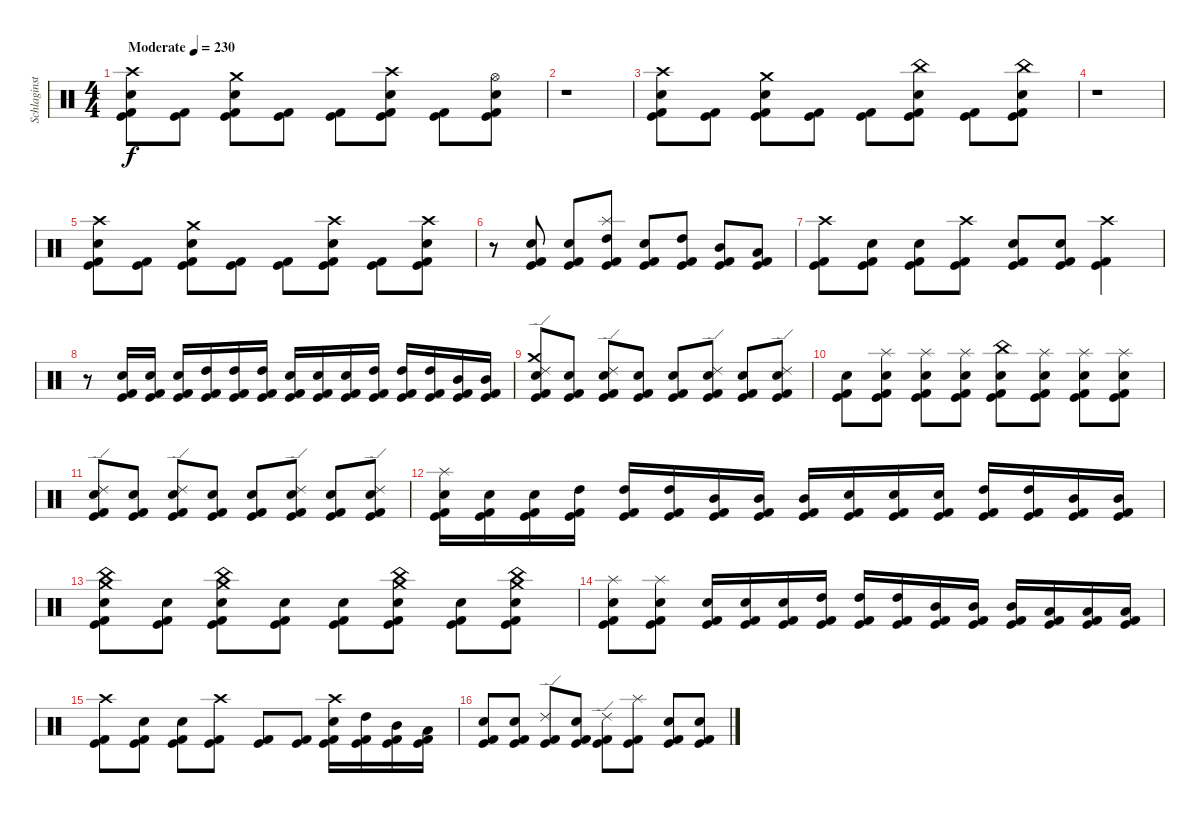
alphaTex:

\track ("Schlaginstrumente - Auswahl" "Schlaginst") {instrument percussion}
\staff {score}
\articulation defaults
\ts (4 4)
\tempo (230 "Moderate")
\clef neutral
\ks c
("Crash high (hit)" "Electric Snare (hit)" "Kick (hit)" "Kick (hit) 2").8{dy f} ("Kick (hit)" "Kick (hit) 2").8 ("Crash medium (hit)" "Electric Snare (hit)" "Kick (hit)" "Kick (hit) 2").8 ("Kick (hit)" "Kick (hit) 2").8 ("Kick (hit)" "Kick (hit) 2").8 ("Crash high (hit)" "Electric Snare (hit)" "Kick (hit)" "Kick (hit) 2").8 ("Kick (hit)" "Kick (hit) 2").8 ("Hi-Hat (open)" "Electric Snare (hit)" "Kick (hit)" "Kick (hit) 2").8 |
r.1 |
("Crash high (hit)" "Electric Snare (hit)" "Kick (hit)" "Kick (hit) 2").8 ("Kick (hit)" "Kick (hit) 2").8 ("Crash medium (hit)" "Electric Snare (hit)" "Kick (hit)" "Kick (hit) 2").8 ("Kick (hit)" "Kick (hit) 2").8 ("Kick (hit)" "Kick (hit) 2").8 ("China (hit)" "Electric Snare (hit)" "Kick (hit)" "Kick (hit) 2").8 ("Kick (hit)" "Kick (hit) 2").8 ("China (hit)" "Electric Snare (hit)" "Kick (hit)" "Kick (hit) 2").8 |
r.1 |
("Crash high (hit)" "Electric Snare (hit)" "Kick (hit)" "Kick (hit) 2").8 ("Kick (hit)" "Kick (hit) 2").8 ("Crash medium (hit)" "Electric Snare (hit)" "Kick (hit)" "Kick (hit) 2").8 ("Kick (hit)" "Kick (hit) 2").8 ("Kick (hit)" "Kick (hit) 2").8 ("Crash high (hit)" "Electric Snare (hit)" "Kick (hit)" "Kick (hit) 2").8 ("Kick (hit)" "Kick (hit) 2").8 ("Crash high (hit)" "Electric Snare (hit)" "Kick (hit)" "Kick (hit) 2").8 |
r.8 ("Electric Snare (hit)" "Kick (hit)" "Kick (hit) 2").8 ("Electric Snare (hit)" "Kick (hit)" "Kick (hit) 2").8 ("Splash (hit)" "High Tom (hit)" "Kick (hit)" "Kick (hit) 2").8 ("Electric Snare (hit)" "Kick (hit)" "Kick (hit) 2").8 ("High Tom (hit)" "Kick (hit)" "Kick (hit) 2").8 ("Mid Tom (hit)" "Kick (hit)" "Kick (hit) 2").8 ("Low Tom (hit)" "Kick (hit)" "Kick (hit) 2").8 |
("Crash high (hit)" "Kick (hit)" "Kick (hit) 2").8 ("Electric Snare (hit)" "Kick (hit)" "Kick (hit) 2").8 ("Electric Snare (hit)" "Kick (hit)" "Kick (hit) 2").8 ("Crash high (hit)" "Kick (hit)" "Kick (hit) 2").8 ("Electric Snare (hit)" "Kick (hit)" "Kick (hit) 2").8 ("Electric Snare (hit)" "Kick (hit)" "Kick (hit) 2").8 ("Crash high (hit)" "Kick (hit)" "Kick (hit) 2").4 |
r.8 ("Electric Snare (hit)" "Kick (hit)" "Kick (hit) 2").16 ("Electric Snare (hit)" "Kick (hit)" "Kick (hit) 2").16 ("Electric Snare (hit)" "Kick (hit)" "Kick (hit) 2").16 ("High Tom (hit)" "Kick (hit)" "Kick (hit) 2").16 ("High Tom (hit)" "Kick (hit)" "Kick (hit) 2").16 ("High Tom (hit)" "Kick (hit)" "Kick (hit) 2").16 ("Electric Snare (hit)" "Kick (hit)" "Kick (hit) 2").16 ("Electric Snare (hit)" "Kick (hit)" "Kick (hit) 2").16 ("Electric Snare (hit)" "Kick (hit)" "Kick (hit) 2").16 ("High Tom (hit)" "Kick (hit)" "Kick (hit) 2").16 ("High Tom (hit)" "Kick (hit)" "Kick (hit) 2").16 ("High Tom (hit)" "Kick (hit)" "Kick (hit) 2").16 ("Mid Tom (hit)" "Kick (hit)" "Kick (hit) 2").16 ("Mid Tom (hit)" "Kick (hit)" "Kick (hit) 2").16 |
("Crash medium (hit)" "Ride (edge) 2" "Electric Snare (hit)" "Kick (hit)" "Kick (hit) 2").8 ("Electric Snare (hit)" "Kick (hit)" "Kick (hit) 2").8 ("Ride (edge) 2" "Electric Snare (hit)" "Kick (hit)" "Kick (hit) 2").8 ("Electric Snare (hit)" "Kick (hit)" "Kick (hit) 2").8 ("Electric Snare (hit)" "Kick (hit)" "Kick (hit) 2").8 ("Ride (edge) 2" "Electric Snare (hit)" "Kick (hit)" "Kick (hit) 2").8 ("Electric Snare (hit)" "Kick (hit)" "Kick (hit) 2").8 ("Ride (edge) 2" "Electric Snare (hit)" "Kick (hit)" "Kick (hit) 2").8 |
("Electric Snare (hit)" "Kick (hit)" "Kick (hit) 2").8 ("Splash (hit)" "Electric Snare (hit)" "Kick (hit)" "Kick (hit) 2").8 ("Splash (hit)" "Electric Snare (hit)" "Kick (hit)" "Kick (hit) 2").8 ("Splash (hit)" "Electric Snare (hit)" "Kick (hit)" "Kick (hit) 2").8 ("China (hit)" "Electric Snare (hit)" "Kick (hit)" "Kick (hit) 2").8 ("Splash (hit)" "Electric Snare (hit)" "Kick (hit)" "Kick (hit) 2").8 ("Splash (hit)" "Electric Snare (hit)" "Kick (hit)" "Kick (hit) 2").8 ("Splash (hit)" "Electric Snare (hit)" "Kick (hit)" "Kick (hit) 2").8 |
("Ride (edge) 2" "Electric Snare (hit)" "Kick (hit)" "Kick (hit) 2").8 ("Electric Snare (hit)" "Kick (hit)" "Kick (hit) 2").8 ("Ride (edge) 2" "Electric Snare (hit)" "Kick (hit)" "Kick (hit) 2").8 ("Electric Snare (hit)" "Kick (hit)" "Kick (hit) 2").8 ("Electric Snare (hit)" "Kick (hit)" "Kick (hit) 2").8 ("Ride (edge) 2" "Electric Snare (hit)" "Kick (hit)" "Kick (hit) 2").8 ("Electric Snare (hit)" "Kick (hit)" "Kick (hit) 2").8 ("Ride (edge) 2" "Electric Snare (hit)" "Kick (hit)" "Kick (hit) 2").8 |
("Splash (hit)" "Electric Snare (hit)" "Kick (hit)" "Kick (hit) 2").16 ("Electric Snare (hit)" "Kick (hit)" "Kick (hit) 2").16 ("Electric Snare (hit)" "Kick (hit)" "Kick (hit) 2").16 ("High Tom (hit)" "Kick (hit)" "Kick (hit) 2").16 ("High Tom (hit)" "Kick (hit)" "Kick (hit) 2").16 ("High Tom (hit)" "Kick (hit)" "Kick (hit) 2").16 ("Mid Tom (hit)" "Kick (hit)" "Kick (hit) 2").16 ("Mid Tom (hit)" "Kick (hit)" "Kick (hit) 2").16 ("Mid Tom (hit)" "Kick (hit)" "Kick (hit) 2").16 ("Electric Snare (hit)" "Kick (hit)" "Kick (hit) 2").16 ("Electric Snare (hit)" "Kick (hit)" "Kick (hit) 2").16 ("Electric Snare (hit)" "Kick (hit)" "Kick (hit) 2").16 ("High Tom (hit)" "Kick (hit)" "Kick (hit) 2").16 ("High Tom (hit)" "Kick (hit)" "Kick (hit) 2").16 ("Mid Tom (hit)" "Kick (hit)" "Kick (hit) 2").16 ("Mid Tom (hit)" "Kick (hit)" "Kick (hit) 2").16 |
("Crash medium (hit)" "China (hit)" "Electric Snare (hit)" "Kick (hit)" "Kick (hit) 2").8 ("Electric Snare (hit)" "Kick (hit)" "Kick (hit) 2").8 ("Crash medium (hit)" "China (hit)" "Electric Snare (hit)" "Kick (hit)" "Kick (hit) 2").8 ("Electric Snare (hit)" "Kick (hit)" "Kick (hit) 2").8 ("Electric Snare (hit)" "Kick (hit)" "Kick (hit) 2").8 ("Crash medium (hit)" "China (hit)" "Electric Snare (hit)" "Kick (hit)" "Kick (hit) 2").8 ("Electric Snare (hit)" "Kick (hit)" "Kick (hit) 2").8 ("Crash medium (hit)" "China (hit)" "Electric Snare (hit)" "Kick (hit)" "Kick (hit) 2").8 |
("Splash (hit)" "Electric Snare (hit)" "Kick (hit)" "Kick (hit) 2").8 ("Splash (hit)" "Electric Snare (hit)" "Kick (hit)" "Kick (hit) 2").8 ("Electric Snare (hit)" "Kick (hit)" "Kick (hit) 2").16 ("Electric Snare (hit)" "Kick (hit)" "Kick (hit) 2").16 ("Electric Snare (hit)" "Kick (hit)" "Kick (hit) 2").16 ("High Tom (hit)" "Kick (hit)" "Kick (hit) 2").16 ("High Tom (hit)" "Kick (hit)" "Kick (hit) 2").16 ("High Tom (hit)" "Kick (hit)" "Kick (hit) 2").16 ("Mid Tom (hit)" "Kick (hit)" "Kick (hit) 2").16 ("Mid Tom (hit)" "Kick (hit)" "Kick (hit) 2").16 ("Mid Tom (hit)" "Kick (hit)" "Kick (hit) 2").16 ("Low Tom (hit)" "Kick (hit)" "Kick (hit) 2").16 ("Low Tom (hit)" "Kick (hit)" "Kick (hit) 2").16 ("Low Tom (hit)" "Kick (hit)" "Kick (hit) 2").16 |
("Crash high (hit)" "Kick (hit)" "Kick (hit) 2").8 ("Electric Snare (hit)" "Kick (hit)" "Kick (hit) 2").8 ("Electric Snare (hit)" "Kick (hit)" "Kick (hit) 2").8 ("Crash high (hit)" "Kick (hit)" "Kick (hit) 2").8 ("Kick (hit)" "Kick (hit) 2").8 ("Kick (hit)" "Kick (hit) 2").8 ("Crash high (hit)" "Electric Snare (hit)" "Kick (hit)" "Kick (hit) 2").16 ("High Tom (hit)" "Kick (hit)" "Kick (hit) 2").16 ("Mid Tom (hit)" "Kick (hit)" "Kick (hit) 2").16 ("Low Tom (hit)" "Kick (hit)" "Kick (hit) 2").16 |
("Electric Snare (hit)" "Kick (hit)" "Kick (hit) 2").8 ("Electric Snare (hit)" "Kick (hit)" "Kick (hit) 2").8 ("Ride (edge) 2" "Kick (hit)" "Kick (hit) 2").8 ("Electric Snare (hit)" "Kick (hit)" "Kick (hit) 2").8 ("Ride (edge) 2" "Kick (hit)" "Kick (hit) 2").8 ("Splash (hit)" "Kick (hit)" "Kick (hit) 2").8 ("Electric Snare (hit)" "Kick (hit)" "Kick (hit) 2").8 ("Electric Snare (hit)" "Kick (hit)" "Kick (hit) 2").8
